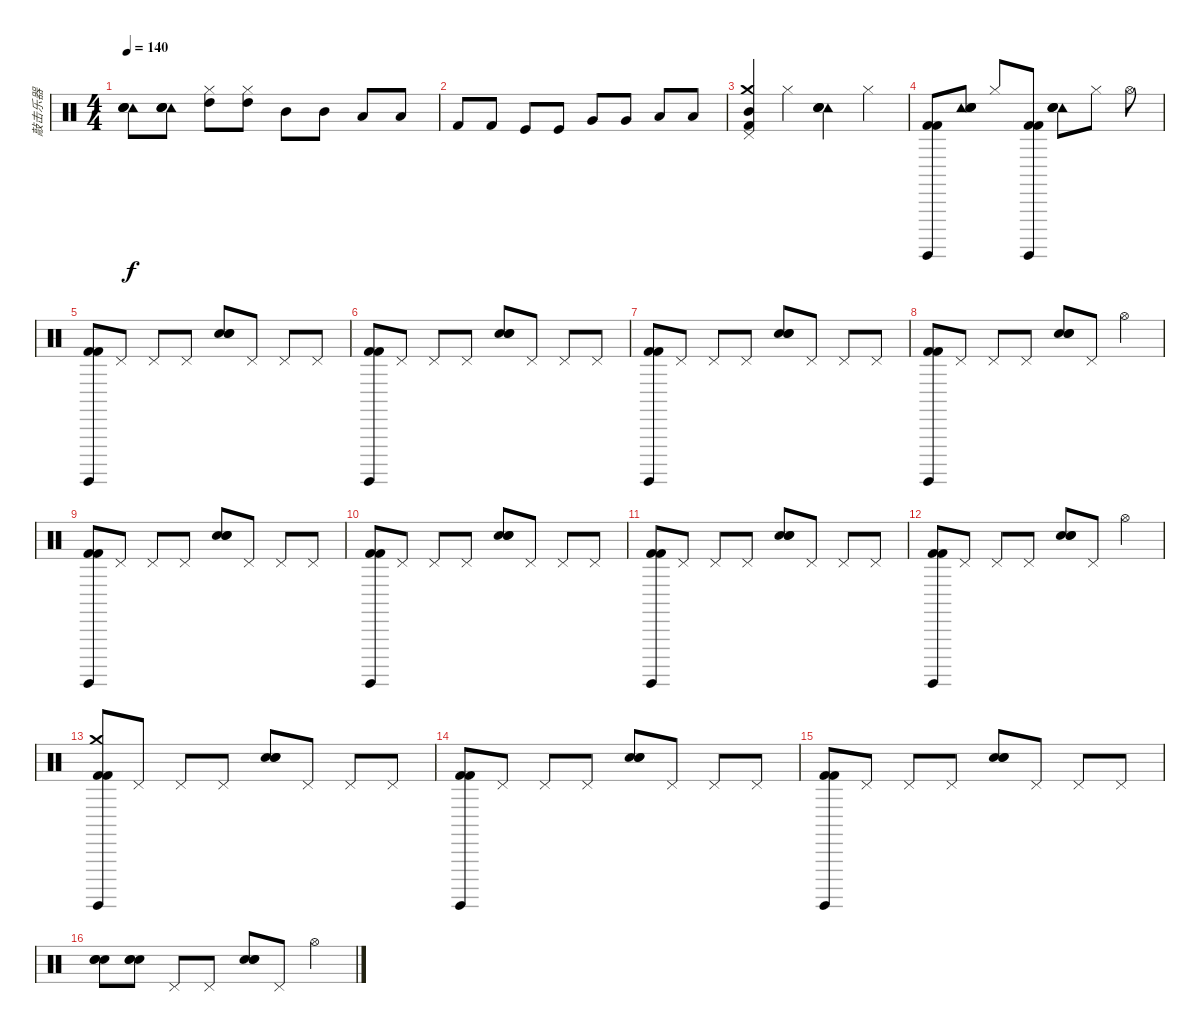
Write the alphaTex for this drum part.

\track ("敲击乐器" "敲击乐器") {instrument percussion bank 3}
\staff {score}
\articulation defaults
\ts (4 4)
\tempo 140
\clef neutral
\ks c
("Tambourine (hit)" "Electric Snare (hit)" "Hand Clap (hit)" "Snare (hit) 2").8{dy f} ("Tambourine (hit)" "Electric Snare (hit)" "Hand Clap (hit)" "Snare (hit) 2").8 ("Hi-Hat (closed)" "High Tom (hit)").8 ("High Tom (hit)" "Hi-Hat (closed)").8 "Mid Tom (hit)".8 "Mid Tom (hit)".8 "Low Tom (hit)".8 "Low Tom (hit)".8 |
"Kick (hit) 2".8 "Kick (hit) 2".8 "Kick (hit)".8 "Kick (hit)".8 "Very Low Tom (hit)".8 "Very Low Tom (hit)".8 "Low Floor Tom (hit)".8 "Low Floor Tom (hit)".8 |
("Crash medium (hit)" "Mid Tom (hit)" "Kick (hit) 2" "Pedal Hi-Hat (hit)").4 "Hi-Hat (closed)".4 ("Tambourine (hit)" "Electric Snare (hit)" "Hand Clap (hit)" "Snare (hit) 2").4 "Hi-Hat (closed)".4 |
("Kick (hit) 2" "Kick (hit) 2" "Surdo (hit)").8 ("Tambourine (hit)" "Electric Snare (hit)" "Hand Clap (hit)" "Snare (hit) 2").8 "Hi-Hat (closed)".8 ("Kick (hit) 2" "Kick (hit) 2" "Surdo (hit)").8 ("Tambourine (hit)" "Electric Snare (hit)" "Hand Clap (hit)" "Snare (hit) 2").8 "Hi-Hat (closed)".8 "Hi-Hat (open)".8 |
("Kick (hit) 2" "Kick (hit) 2" "Surdo (hit)").8 "Pedal Hi-Hat (hit)".8 "Pedal Hi-Hat (hit)".8 "Pedal Hi-Hat (hit)".8 ("Snare (hit) 2" "Hand Clap (hit)" "Electric Snare (hit)").8 "Pedal Hi-Hat (hit)".8 "Pedal Hi-Hat (hit)".8 "Pedal Hi-Hat (hit)".8 |
("Kick (hit) 2" "Kick (hit) 2" "Surdo (hit)").8 "Pedal Hi-Hat (hit)".8 "Pedal Hi-Hat (hit)".8 "Pedal Hi-Hat (hit)".8 ("Snare (hit) 2" "Hand Clap (hit)" "Electric Snare (hit)").8 "Pedal Hi-Hat (hit)".8 "Pedal Hi-Hat (hit)".8 "Pedal Hi-Hat (hit)".8 |
("Kick (hit) 2" "Kick (hit) 2" "Surdo (hit)").8 "Pedal Hi-Hat (hit)".8 "Pedal Hi-Hat (hit)".8 "Pedal Hi-Hat (hit)".8 ("Snare (hit) 2" "Hand Clap (hit)" "Electric Snare (hit)").8 "Pedal Hi-Hat (hit)".8 "Pedal Hi-Hat (hit)".8 "Pedal Hi-Hat (hit)".8 |
("Kick (hit) 2" "Kick (hit) 2" "Surdo (hit)").8 "Pedal Hi-Hat (hit)".8 "Pedal Hi-Hat (hit)".8 "Pedal Hi-Hat (hit)".8 ("Snare (hit) 2" "Hand Clap (hit)" "Electric Snare (hit)").8 "Pedal Hi-Hat (hit)".8 "Hi-Hat (open)".4 |
("Kick (hit) 2" "Kick (hit) 2" "Surdo (hit)").8 "Pedal Hi-Hat (hit)".8 "Pedal Hi-Hat (hit)".8 "Pedal Hi-Hat (hit)".8 ("Snare (hit) 2" "Hand Clap (hit)" "Electric Snare (hit)").8 "Pedal Hi-Hat (hit)".8 "Pedal Hi-Hat (hit)".8 "Pedal Hi-Hat (hit)".8 |
("Kick (hit) 2" "Kick (hit) 2" "Surdo (hit)").8 "Pedal Hi-Hat (hit)".8 "Pedal Hi-Hat (hit)".8 "Pedal Hi-Hat (hit)".8 ("Snare (hit) 2" "Hand Clap (hit)" "Electric Snare (hit)").8 "Pedal Hi-Hat (hit)".8 "Pedal Hi-Hat (hit)".8 "Pedal Hi-Hat (hit)".8 |
("Kick (hit) 2" "Kick (hit) 2" "Surdo (hit)").8 "Pedal Hi-Hat (hit)".8 "Pedal Hi-Hat (hit)".8 "Pedal Hi-Hat (hit)".8 ("Snare (hit) 2" "Hand Clap (hit)" "Electric Snare (hit)").8 "Pedal Hi-Hat (hit)".8 "Pedal Hi-Hat (hit)".8 "Pedal Hi-Hat (hit)".8 |
("Kick (hit) 2" "Kick (hit) 2" "Surdo (hit)").8 "Pedal Hi-Hat (hit)".8 "Pedal Hi-Hat (hit)".8 "Pedal Hi-Hat (hit)".8 ("Snare (hit) 2" "Hand Clap (hit)" "Electric Snare (hit)").8 "Pedal Hi-Hat (hit)".8 "Hi-Hat (open)".4 |
("Crash medium (hit)" "Kick (hit) 2" "Kick (hit) 2" "Surdo (hit)").8 "Pedal Hi-Hat (hit)".8 "Pedal Hi-Hat (hit)".8 "Pedal Hi-Hat (hit)".8 ("Snare (hit) 2" "Hand Clap (hit)" "Electric Snare (hit)").8 "Pedal Hi-Hat (hit)".8 "Pedal Hi-Hat (hit)".8 "Pedal Hi-Hat (hit)".8 |
("Kick (hit) 2" "Kick (hit) 2" "Surdo (hit)").8 "Pedal Hi-Hat (hit)".8 "Pedal Hi-Hat (hit)".8 "Pedal Hi-Hat (hit)".8 ("Snare (hit) 2" "Hand Clap (hit)" "Electric Snare (hit)").8 "Pedal Hi-Hat (hit)".8 "Pedal Hi-Hat (hit)".8 "Pedal Hi-Hat (hit)".8 |
("Kick (hit) 2" "Kick (hit) 2" "Surdo (hit)").8 "Pedal Hi-Hat (hit)".8 "Pedal Hi-Hat (hit)".8 "Pedal Hi-Hat (hit)".8 ("Snare (hit) 2" "Hand Clap (hit)" "Electric Snare (hit)").8 "Pedal Hi-Hat (hit)".8 "Pedal Hi-Hat (hit)".8 "Pedal Hi-Hat (hit)".8 |
("Snare (hit) 2" "Hand Clap (hit)" "Electric Snare (hit)").8 ("Snare (hit) 2" "Hand Clap (hit)" "Electric Snare (hit)").8 "Pedal Hi-Hat (hit)".8 "Pedal Hi-Hat (hit)".8 ("Snare (hit) 2" "Hand Clap (hit)" "Electric Snare (hit)").8 "Pedal Hi-Hat (hit)".8 "Hi-Hat (open)".4
